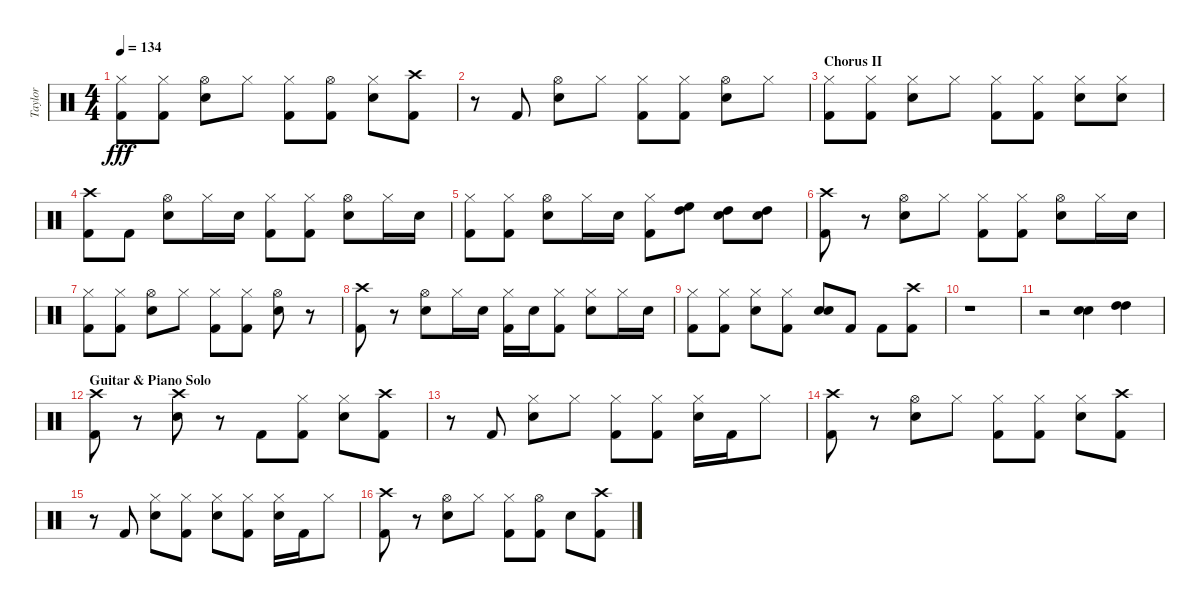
\track ("Taylor" "Taylor") {instrument percussion}
\staff {score}
\articulation defaults
\ts (4 4)
\tempo 134
\clef neutral
\ks c
("Kick (hit) 2" "Hi-Hat (closed)").8{dy fff} ("Kick (hit) 2" "Hi-Hat (closed)").8 ("Snare (hit) 2" "Hi-Hat (open)").8 "Hi-Hat (closed)".8 ("Kick (hit) 2" "Hi-Hat (closed)").8 ("Kick (hit) 2" "Hi-Hat (open)").8 ("Snare (hit) 2" "Hi-Hat (closed)").8 ("Kick (hit) 2" "Crash high (hit)").8 |
r.8 "Kick (hit) 2".8 ("Snare (hit) 2" "Hi-Hat (open)").8 "Hi-Hat (closed)".8 ("Kick (hit) 2" "Hi-Hat (closed)").8 ("Kick (hit) 2" "Hi-Hat (closed)").8 ("Snare (hit) 2" "Hi-Hat (open)").8 "Hi-Hat (closed)".8 |
\section ("" "Chorus II")
("Kick (hit) 2" "Hi-Hat (closed)").8 ("Kick (hit) 2" "Hi-Hat (closed)").8 ("Snare (hit) 2" "Hi-Hat (closed)").8 "Hi-Hat (closed)".8 ("Kick (hit) 2" "Hi-Hat (closed)").8 ("Kick (hit) 2" "Hi-Hat (closed)").8 ("Snare (hit) 2" "Hi-Hat (closed)").8 ("Snare (hit) 2" "Hi-Hat (closed)").8 |
("Kick (hit) 2" "Crash high (hit)").8 "Kick (hit) 2".8 ("Snare (hit) 2" "Hi-Hat (open)").8 "Hi-Hat (closed)".16 "Snare (hit) 2".16 ("Kick (hit) 2" "Hi-Hat (closed)").8 ("Kick (hit) 2" "Hi-Hat (closed)").8 ("Snare (hit) 2" "Hi-Hat (open)").8 "Hi-Hat (closed)".16 "Snare (hit) 2".16 |
("Kick (hit) 2" "Hi-Hat (closed)").8 ("Kick (hit) 2" "Hi-Hat (closed)").8 ("Snare (hit) 2" "Hi-Hat (open)").8 "Hi-Hat (closed)".16 "Snare (hit) 2".16 ("Kick (hit) 2" "Hi-Hat (closed)").8 ("High Tom (hit)" "High Floor Tom (hit)").8 ("Snare (hit) 2" "High Tom (hit)").8 ("Snare (hit) 2" "High Tom (hit)").8 |
("Kick (hit) 2" "Crash high (hit)").8 r.8 ("Snare (hit) 2" "Hi-Hat (open)").8 "Hi-Hat (closed)".8 ("Kick (hit) 2" "Hi-Hat (closed)").8 ("Kick (hit) 2" "Hi-Hat (closed)").8 ("Snare (hit) 2" "Hi-Hat (open)").8 "Hi-Hat (closed)".16 "Snare (hit) 2".16 |
("Kick (hit) 2" "Hi-Hat (closed)").8 ("Kick (hit) 2" "Hi-Hat (closed)").8 ("Snare (hit) 2" "Hi-Hat (open)").8 "Hi-Hat (closed)".8 ("Kick (hit) 2" "Hi-Hat (closed)").8 ("Kick (hit) 2" "Hi-Hat (closed)").8 ("Snare (hit) 2" "Hi-Hat (open)").8 r.8 |
("Kick (hit) 2" "Crash high (hit)").8 r.8 ("Snare (hit) 2" "Hi-Hat (open)").8 "Hi-Hat (closed)".16 "Snare (hit) 2".16 ("Kick (hit) 2" "Hi-Hat (closed)").16 "Snare (hit) 2".16 ("Kick (hit) 2" "Hi-Hat (closed)").8 ("Snare (hit) 2" "Hi-Hat (closed)").8 "Hi-Hat (closed)".16 "Snare (hit) 2".16 |
("Kick (hit) 2" "Hi-Hat (closed)").8 ("Kick (hit) 2" "Hi-Hat (closed)").8 ("Snare (hit) 2" "Hi-Hat (closed)").8 ("Kick (hit) 2" "Hi-Hat (closed)").8 ("Snare (hit) 2" "Snare (hit) 2").8 "Kick (hit) 2".8 "Kick (hit) 2".8 ("Kick (hit) 2" "Crash high (hit)").8 |
r.1 |
r.2 ("Snare (hit) 2" "Snare (hit) 2").4 ("High Tom (hit)" "High Tom (hit)").4 |
\section ("" "Guitar & Piano Solo")
("Crash high (hit)" "Kick (hit) 2").8 r.8 ("Crash high (hit)" "Snare (hit) 2").8 r.8 "Kick (hit) 2".8 ("Hi-Hat (closed)" "Kick (hit) 2").8 ("Hi-Hat (closed)" "Snare (hit) 2").8 ("Crash high (hit)" "Kick (hit) 2").8 |
r.8 "Kick (hit) 2".8 ("Snare (hit) 2" "Hi-Hat (closed)").8 "Hi-Hat (closed)".8 ("Kick (hit) 2" "Hi-Hat (closed)").8 ("Kick (hit) 2" "Hi-Hat (closed)").8 ("Snare (hit) 2" "Hi-Hat (closed)").16 "Kick (hit) 2".16 "Hi-Hat (closed)".8 |
("Kick (hit) 2" "Crash high (hit)").8 r.8 ("Snare (hit) 2" "Hi-Hat (open)").8 "Hi-Hat (closed)".8 ("Kick (hit) 2" "Hi-Hat (closed)").8 ("Kick (hit) 2" "Hi-Hat (closed)").8 ("Snare (hit) 2" "Hi-Hat (closed)").8 ("Kick (hit) 2" "Crash high (hit)").8 |
r.8 "Kick (hit) 2".8 ("Snare (hit) 2" "Hi-Hat (closed)").8 ("Kick (hit) 2" "Hi-Hat (closed)").8 ("Snare (hit) 2" "Hi-Hat (closed)").8 ("Kick (hit) 2" "Hi-Hat (closed)").8 ("Snare (hit) 2" "Hi-Hat (closed)").16 "Kick (hit) 2".16 "Hi-Hat (closed)".8 |
("Kick (hit) 2" "Crash high (hit)").8 r.8 ("Snare (hit) 2" "Hi-Hat (open)").8 "Hi-Hat (closed)".8 ("Kick (hit) 2" "Hi-Hat (closed)").8 ("Kick (hit) 2" "Hi-Hat (open)").8 "Snare (hit) 2".8 ("Kick (hit) 2" "Crash high (hit)").8
